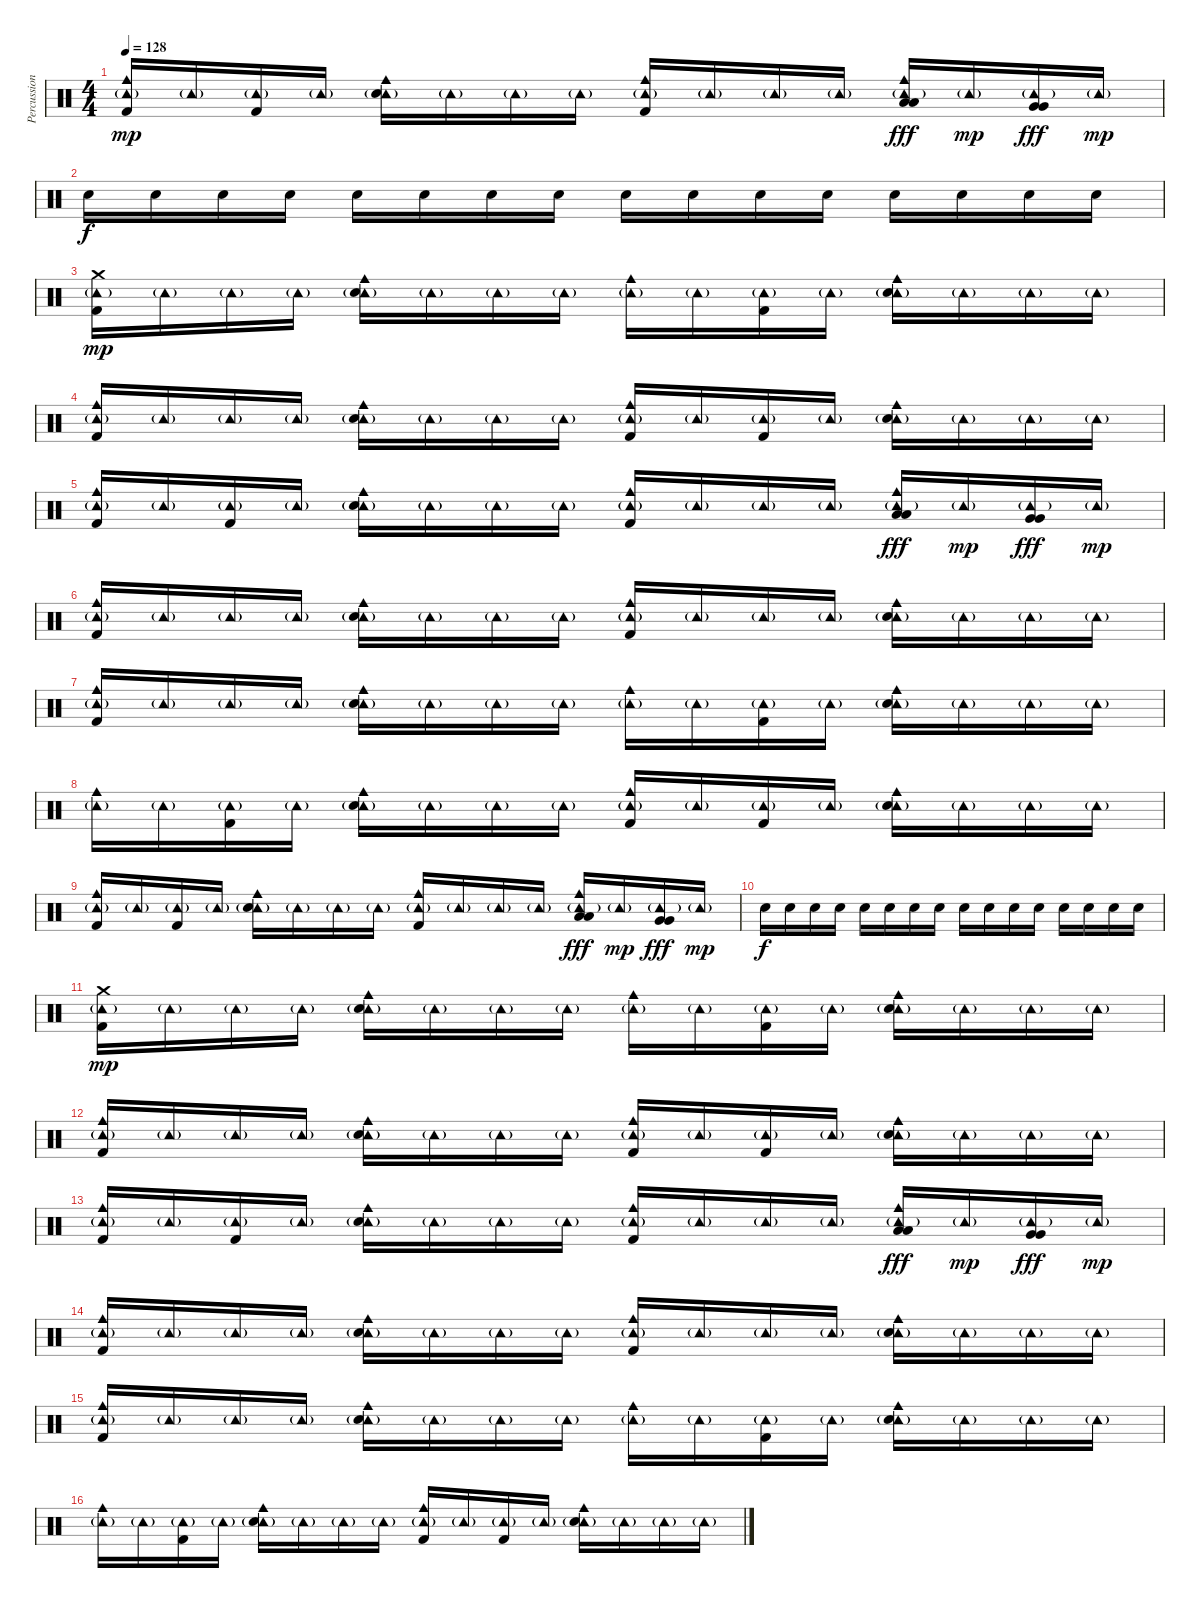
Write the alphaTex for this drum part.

\track ("Percussion" "Percussion") {instrument percussion}
\staff {score}
\articulation defaults
\ts (4 4)
\tempo 128
\clef neutral
\ks c
("Tambourine (hit)"{g} "Cowbell medium (hit)" "Kick (hit) 2").16{dy mp} "Tambourine (hit)"{g}.16 ("Tambourine (hit)"{g} "Kick (hit) 2").16 "Tambourine (hit)"{g}.16 ("Tambourine (hit)"{g} "Cowbell medium (hit)" "Snare (hit) 2").16 "Tambourine (hit)"{g}.16 "Tambourine (hit)"{g}.16 "Tambourine (hit)"{g}.16 ("Tambourine (hit)"{g} "Cowbell medium (hit)" "Kick (hit) 2").16 "Tambourine (hit)"{g}.16 "Tambourine (hit)"{g}.16 "Tambourine (hit)"{g}.16 ("Tambourine (hit)"{g} "Cowbell medium (hit)" "Low Tom (hit)" "Low Tom (hit)").16{dy fff} "Tambourine (hit)"{g}.16{dy mp} ("Tambourine (hit)"{g} "Very Low Tom (hit)" "Very Low Tom (hit)").16{dy fff} "Tambourine (hit)"{g}.16{dy mp} |
"Snare (hit) 2".16{dy f} "Snare (hit) 2".16 "Snare (hit) 2".16 "Snare (hit) 2".16 "Snare (hit) 2".16 "Snare (hit) 2".16 "Snare (hit) 2".16 "Snare (hit) 2".16 "Snare (hit) 2".16 "Snare (hit) 2".16 "Snare (hit) 2".16 "Snare (hit) 2".16 "Snare (hit) 2".16 "Snare (hit) 2".16 "Snare (hit) 2".16 "Snare (hit) 2".16 |
("Tambourine (hit)"{g} "Crash medium (hit)" "Kick (hit) 2").16{dy mp} "Tambourine (hit)"{g}.16 "Tambourine (hit)"{g}.16 "Tambourine (hit)"{g}.16 ("Tambourine (hit)"{g} "Cowbell medium (hit)" "Snare (hit) 2").16 "Tambourine (hit)"{g}.16 "Tambourine (hit)"{g}.16 "Tambourine (hit)"{g}.16 ("Tambourine (hit)"{g} "Cowbell medium (hit)").16 "Tambourine (hit)"{g}.16 ("Tambourine (hit)"{g} "Kick (hit) 2").16 "Tambourine (hit)"{g}.16 ("Tambourine (hit)"{g} "Cowbell medium (hit)" "Snare (hit) 2").16 "Tambourine (hit)"{g}.16 "Tambourine (hit)"{g}.16 "Tambourine (hit)"{g}.16 |
("Tambourine (hit)"{g} "Cowbell medium (hit)" "Kick (hit) 2").16 "Tambourine (hit)"{g}.16 "Tambourine (hit)"{g}.16 "Tambourine (hit)"{g}.16 ("Tambourine (hit)"{g} "Cowbell medium (hit)" "Snare (hit) 2").16 "Tambourine (hit)"{g}.16 "Tambourine (hit)"{g}.16 "Tambourine (hit)"{g}.16 ("Tambourine (hit)"{g} "Cowbell medium (hit)" "Kick (hit) 2").16 "Tambourine (hit)"{g}.16 ("Tambourine (hit)"{g} "Kick (hit) 2").16 "Tambourine (hit)"{g}.16 ("Tambourine (hit)"{g} "Cowbell medium (hit)" "Snare (hit) 2").16 "Tambourine (hit)"{g}.16 "Tambourine (hit)"{g}.16 "Tambourine (hit)"{g}.16 |
("Tambourine (hit)"{g} "Cowbell medium (hit)" "Kick (hit) 2").16 "Tambourine (hit)"{g}.16 ("Tambourine (hit)"{g} "Kick (hit) 2").16 "Tambourine (hit)"{g}.16 ("Tambourine (hit)"{g} "Cowbell medium (hit)" "Snare (hit) 2").16 "Tambourine (hit)"{g}.16 "Tambourine (hit)"{g}.16 "Tambourine (hit)"{g}.16 ("Tambourine (hit)"{g} "Cowbell medium (hit)" "Kick (hit) 2").16 "Tambourine (hit)"{g}.16 "Tambourine (hit)"{g}.16 "Tambourine (hit)"{g}.16 ("Tambourine (hit)"{g} "Cowbell medium (hit)" "Low Tom (hit)" "Low Tom (hit)").16{dy fff} "Tambourine (hit)"{g}.16{dy mp} ("Tambourine (hit)"{g} "Very Low Tom (hit)" "Very Low Tom (hit)").16{dy fff} "Tambourine (hit)"{g}.16{dy mp} |
("Tambourine (hit)"{g} "Cowbell medium (hit)" "Kick (hit) 2").16 "Tambourine (hit)"{g}.16 "Tambourine (hit)"{g}.16 "Tambourine (hit)"{g}.16 ("Tambourine (hit)"{g} "Cowbell medium (hit)" "Snare (hit) 2").16 "Tambourine (hit)"{g}.16 "Tambourine (hit)"{g}.16 "Tambourine (hit)"{g}.16 ("Tambourine (hit)"{g} "Cowbell medium (hit)" "Kick (hit) 2").16 "Tambourine (hit)"{g}.16 "Tambourine (hit)"{g}.16 "Tambourine (hit)"{g}.16 ("Tambourine (hit)"{g} "Cowbell medium (hit)" "Snare (hit) 2").16 "Tambourine (hit)"{g}.16 "Tambourine (hit)"{g}.16 "Tambourine (hit)"{g}.16 |
("Tambourine (hit)"{g} "Cowbell medium (hit)" "Kick (hit) 2").16 "Tambourine (hit)"{g}.16 "Tambourine (hit)"{g}.16 "Tambourine (hit)"{g}.16 ("Tambourine (hit)"{g} "Cowbell medium (hit)" "Snare (hit) 2").16 "Tambourine (hit)"{g}.16 "Tambourine (hit)"{g}.16 "Tambourine (hit)"{g}.16 ("Tambourine (hit)"{g} "Cowbell medium (hit)").16 "Tambourine (hit)"{g}.16 ("Tambourine (hit)"{g} "Kick (hit) 2").16 "Tambourine (hit)"{g}.16 ("Tambourine (hit)"{g} "Cowbell medium (hit)" "Snare (hit) 2").16 "Tambourine (hit)"{g}.16 "Tambourine (hit)"{g}.16 "Tambourine (hit)"{g}.16 |
("Tambourine (hit)"{g} "Cowbell medium (hit)").16 "Tambourine (hit)"{g}.16 ("Tambourine (hit)"{g} "Kick (hit) 2").16 "Tambourine (hit)"{g}.16 ("Tambourine (hit)"{g} "Cowbell medium (hit)" "Snare (hit) 2").16 "Tambourine (hit)"{g}.16 "Tambourine (hit)"{g}.16 "Tambourine (hit)"{g}.16 ("Tambourine (hit)"{g} "Cowbell medium (hit)" "Kick (hit) 2").16 "Tambourine (hit)"{g}.16 ("Tambourine (hit)"{g} "Kick (hit) 2").16 "Tambourine (hit)"{g}.16 ("Tambourine (hit)"{g} "Cowbell medium (hit)" "Snare (hit) 2").16 "Tambourine (hit)"{g}.16 "Tambourine (hit)"{g}.16 "Tambourine (hit)"{g}.16 |
("Tambourine (hit)"{g} "Cowbell medium (hit)" "Kick (hit) 2").16 "Tambourine (hit)"{g}.16 ("Tambourine (hit)"{g} "Kick (hit) 2").16 "Tambourine (hit)"{g}.16 ("Tambourine (hit)"{g} "Cowbell medium (hit)" "Snare (hit) 2").16 "Tambourine (hit)"{g}.16 "Tambourine (hit)"{g}.16 "Tambourine (hit)"{g}.16 ("Tambourine (hit)"{g} "Cowbell medium (hit)" "Kick (hit) 2").16 "Tambourine (hit)"{g}.16 "Tambourine (hit)"{g}.16 "Tambourine (hit)"{g}.16 ("Tambourine (hit)"{g} "Cowbell medium (hit)" "Low Tom (hit)" "Low Tom (hit)").16{dy fff} "Tambourine (hit)"{g}.16{dy mp} ("Tambourine (hit)"{g} "Very Low Tom (hit)" "Very Low Tom (hit)").16{dy fff} "Tambourine (hit)"{g}.16{dy mp} |
"Snare (hit) 2".16{dy f} "Snare (hit) 2".16 "Snare (hit) 2".16 "Snare (hit) 2".16 "Snare (hit) 2".16 "Snare (hit) 2".16 "Snare (hit) 2".16 "Snare (hit) 2".16 "Snare (hit) 2".16 "Snare (hit) 2".16 "Snare (hit) 2".16 "Snare (hit) 2".16 "Snare (hit) 2".16 "Snare (hit) 2".16 "Snare (hit) 2".16 "Snare (hit) 2".16 |
("Tambourine (hit)"{g} "Crash medium (hit)" "Kick (hit) 2").16{dy mp} "Tambourine (hit)"{g}.16 "Tambourine (hit)"{g}.16 "Tambourine (hit)"{g}.16 ("Tambourine (hit)"{g} "Cowbell medium (hit)" "Snare (hit) 2").16 "Tambourine (hit)"{g}.16 "Tambourine (hit)"{g}.16 "Tambourine (hit)"{g}.16 ("Tambourine (hit)"{g} "Cowbell medium (hit)").16 "Tambourine (hit)"{g}.16 ("Tambourine (hit)"{g} "Kick (hit) 2").16 "Tambourine (hit)"{g}.16 ("Tambourine (hit)"{g} "Cowbell medium (hit)" "Snare (hit) 2").16 "Tambourine (hit)"{g}.16 "Tambourine (hit)"{g}.16 "Tambourine (hit)"{g}.16 |
("Tambourine (hit)"{g} "Cowbell medium (hit)" "Kick (hit) 2").16 "Tambourine (hit)"{g}.16 "Tambourine (hit)"{g}.16 "Tambourine (hit)"{g}.16 ("Tambourine (hit)"{g} "Cowbell medium (hit)" "Snare (hit) 2").16 "Tambourine (hit)"{g}.16 "Tambourine (hit)"{g}.16 "Tambourine (hit)"{g}.16 ("Tambourine (hit)"{g} "Cowbell medium (hit)" "Kick (hit) 2").16 "Tambourine (hit)"{g}.16 ("Tambourine (hit)"{g} "Kick (hit) 2").16 "Tambourine (hit)"{g}.16 ("Tambourine (hit)"{g} "Cowbell medium (hit)" "Snare (hit) 2").16 "Tambourine (hit)"{g}.16 "Tambourine (hit)"{g}.16 "Tambourine (hit)"{g}.16 |
("Tambourine (hit)"{g} "Cowbell medium (hit)" "Kick (hit) 2").16 "Tambourine (hit)"{g}.16 ("Tambourine (hit)"{g} "Kick (hit) 2").16 "Tambourine (hit)"{g}.16 ("Tambourine (hit)"{g} "Cowbell medium (hit)" "Snare (hit) 2").16 "Tambourine (hit)"{g}.16 "Tambourine (hit)"{g}.16 "Tambourine (hit)"{g}.16 ("Tambourine (hit)"{g} "Cowbell medium (hit)" "Kick (hit) 2").16 "Tambourine (hit)"{g}.16 "Tambourine (hit)"{g}.16 "Tambourine (hit)"{g}.16 ("Tambourine (hit)"{g} "Cowbell medium (hit)" "Low Tom (hit)" "Low Tom (hit)").16{dy fff} "Tambourine (hit)"{g}.16{dy mp} ("Tambourine (hit)"{g} "Very Low Tom (hit)" "Very Low Tom (hit)").16{dy fff} "Tambourine (hit)"{g}.16{dy mp} |
("Tambourine (hit)"{g} "Cowbell medium (hit)" "Kick (hit) 2").16 "Tambourine (hit)"{g}.16 "Tambourine (hit)"{g}.16 "Tambourine (hit)"{g}.16 ("Tambourine (hit)"{g} "Cowbell medium (hit)" "Snare (hit) 2").16 "Tambourine (hit)"{g}.16 "Tambourine (hit)"{g}.16 "Tambourine (hit)"{g}.16 ("Tambourine (hit)"{g} "Cowbell medium (hit)" "Kick (hit) 2").16 "Tambourine (hit)"{g}.16 "Tambourine (hit)"{g}.16 "Tambourine (hit)"{g}.16 ("Tambourine (hit)"{g} "Cowbell medium (hit)" "Snare (hit) 2").16 "Tambourine (hit)"{g}.16 "Tambourine (hit)"{g}.16 "Tambourine (hit)"{g}.16 |
("Tambourine (hit)"{g} "Cowbell medium (hit)" "Kick (hit) 2").16 "Tambourine (hit)"{g}.16 "Tambourine (hit)"{g}.16 "Tambourine (hit)"{g}.16 ("Tambourine (hit)"{g} "Cowbell medium (hit)" "Snare (hit) 2").16 "Tambourine (hit)"{g}.16 "Tambourine (hit)"{g}.16 "Tambourine (hit)"{g}.16 ("Tambourine (hit)"{g} "Cowbell medium (hit)").16 "Tambourine (hit)"{g}.16 ("Tambourine (hit)"{g} "Kick (hit) 2").16 "Tambourine (hit)"{g}.16 ("Tambourine (hit)"{g} "Cowbell medium (hit)" "Snare (hit) 2").16 "Tambourine (hit)"{g}.16 "Tambourine (hit)"{g}.16 "Tambourine (hit)"{g}.16 |
("Tambourine (hit)"{g} "Cowbell medium (hit)").16 "Tambourine (hit)"{g}.16 ("Tambourine (hit)"{g} "Kick (hit) 2").16 "Tambourine (hit)"{g}.16 ("Tambourine (hit)"{g} "Cowbell medium (hit)" "Snare (hit) 2").16 "Tambourine (hit)"{g}.16 "Tambourine (hit)"{g}.16 "Tambourine (hit)"{g}.16 ("Tambourine (hit)"{g} "Cowbell medium (hit)" "Kick (hit) 2").16 "Tambourine (hit)"{g}.16 ("Tambourine (hit)"{g} "Kick (hit) 2").16 "Tambourine (hit)"{g}.16 ("Tambourine (hit)"{g} "Cowbell medium (hit)" "Snare (hit) 2").16 "Tambourine (hit)"{g}.16 "Tambourine (hit)"{g}.16 "Tambourine (hit)"{g}.16
